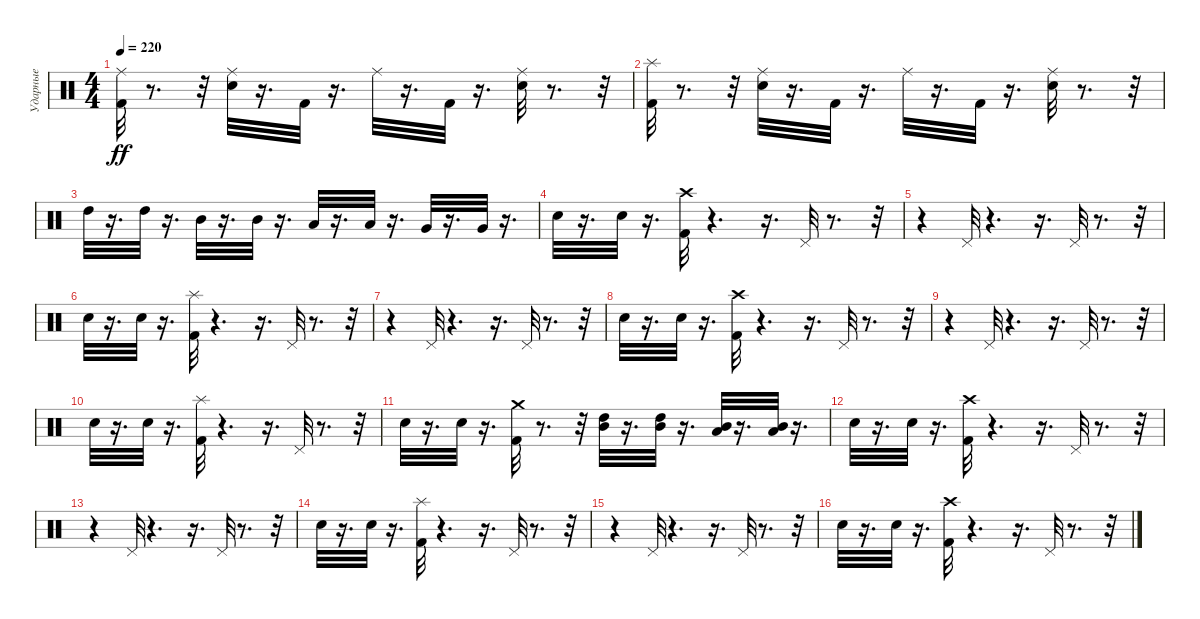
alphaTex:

\track ("Ударные" "Ударные") {instrument percussion}
\staff {score}
\articulation defaults
\ts (4 4)
\tempo 220
\clef neutral
\ks c
("Kick (hit) 2" "Ride (middle)").32{dy ff} r.8{d} r.32 ("Snare (hit) 2" "Ride (middle)").32 r.16{d} "Kick (hit) 2".32 r.16{d} "Ride (middle)".32 r.16{d} "Kick (hit) 2".32 r.16{d} ("Snare (hit) 2" "Ride (middle)").32 r.8{d} r.32 |
("Splash (hit)" "Kick (hit) 2").32 r.8{d} r.32 ("Ride (middle)" "Snare (hit) 2").32 r.16{d} "Kick (hit) 2".32 r.16{d} "Ride (middle)".32 r.16{d} "Kick (hit) 2".32 r.16{d} ("Ride (middle)" "Snare (hit) 2").32 r.8{d} r.32 |
"High Tom (hit)".32 r.16{d} "High Tom (hit)".32 r.16{d} "Mid Tom (hit)".32 r.16{d} "Mid Tom (hit)".32 r.16{d} "Low Tom (hit)".32 r.16{d} "Low Tom (hit)".32 r.16{d} "Very Low Tom (hit)".32 r.16{d} "Very Low Tom (hit)".32 r.16{d} |
"Snare (hit) 2".32 r.16{d} "Snare (hit) 2".32 r.16{d} ("Crash high (hit)" "Kick (hit) 2").32 r.4{d} r.16{d} "Pedal Hi-Hat (hit)".32 r.8{d} r.32 |
r.4 "Pedal Hi-Hat (hit)".32 r.4{d} r.16{d} "Pedal Hi-Hat (hit)".32 r.8{d} r.32 |
"Snare (hit) 2".32 r.16{d} "Snare (hit) 2".32 r.16{d} ("Splash (hit)" "Kick (hit) 2").32 r.4{d} r.16{d} "Pedal Hi-Hat (hit)".32 r.8{d} r.32 |
r.4 "Pedal Hi-Hat (hit)".32 r.4{d} r.16{d} "Pedal Hi-Hat (hit)".32 r.8{d} r.32 |
"Snare (hit) 2".32 r.16{d} "Snare (hit) 2".32 r.16{d} ("Crash high (hit)" "Kick (hit) 2").32 r.4{d} r.16{d} "Pedal Hi-Hat (hit)".32 r.8{d} r.32 |
r.4 "Pedal Hi-Hat (hit)".32 r.4{d} r.16{d} "Pedal Hi-Hat (hit)".32 r.8{d} r.32 |
"Snare (hit) 2".32 r.16{d} "Snare (hit) 2".32 r.16{d} ("Splash (hit)" "Kick (hit) 2").32 r.4{d} r.16{d} "Pedal Hi-Hat (hit)".32 r.8{d} r.32 |
"Snare (hit) 2".32 r.16{d} "Snare (hit) 2".32 r.16{d} ("Crash medium (hit)" "Kick (hit) 2").32 r.8{d} r.32 ("Mid Tom (hit)" "High Tom (hit)").32 r.16{d} ("Mid Tom (hit)" "High Tom (hit)").32 r.16{d} ("Low Tom (hit)" "Mid Tom (hit)").32 r.16{d} ("Mid Tom (hit)" "Low Tom (hit)").32 r.16{d} |
"Snare (hit) 2".32 r.16{d} "Snare (hit) 2".32 r.16{d} ("Crash high (hit)" "Kick (hit) 2").32 r.4{d} r.16{d} "Pedal Hi-Hat (hit)".32 r.8{d} r.32 |
r.4 "Pedal Hi-Hat (hit)".32 r.4{d} r.16{d} "Pedal Hi-Hat (hit)".32 r.8{d} r.32 |
"Snare (hit) 2".32 r.16{d} "Snare (hit) 2".32 r.16{d} ("Splash (hit)" "Kick (hit) 2").32 r.4{d} r.16{d} "Pedal Hi-Hat (hit)".32 r.8{d} r.32 |
r.4 "Pedal Hi-Hat (hit)".32 r.4{d} r.16{d} "Pedal Hi-Hat (hit)".32 r.8{d} r.32 |
"Snare (hit) 2".32 r.16{d} "Snare (hit) 2".32 r.16{d} ("Crash high (hit)" "Kick (hit) 2").32 r.4{d} r.16{d} "Pedal Hi-Hat (hit)".32 r.8{d} r.32
